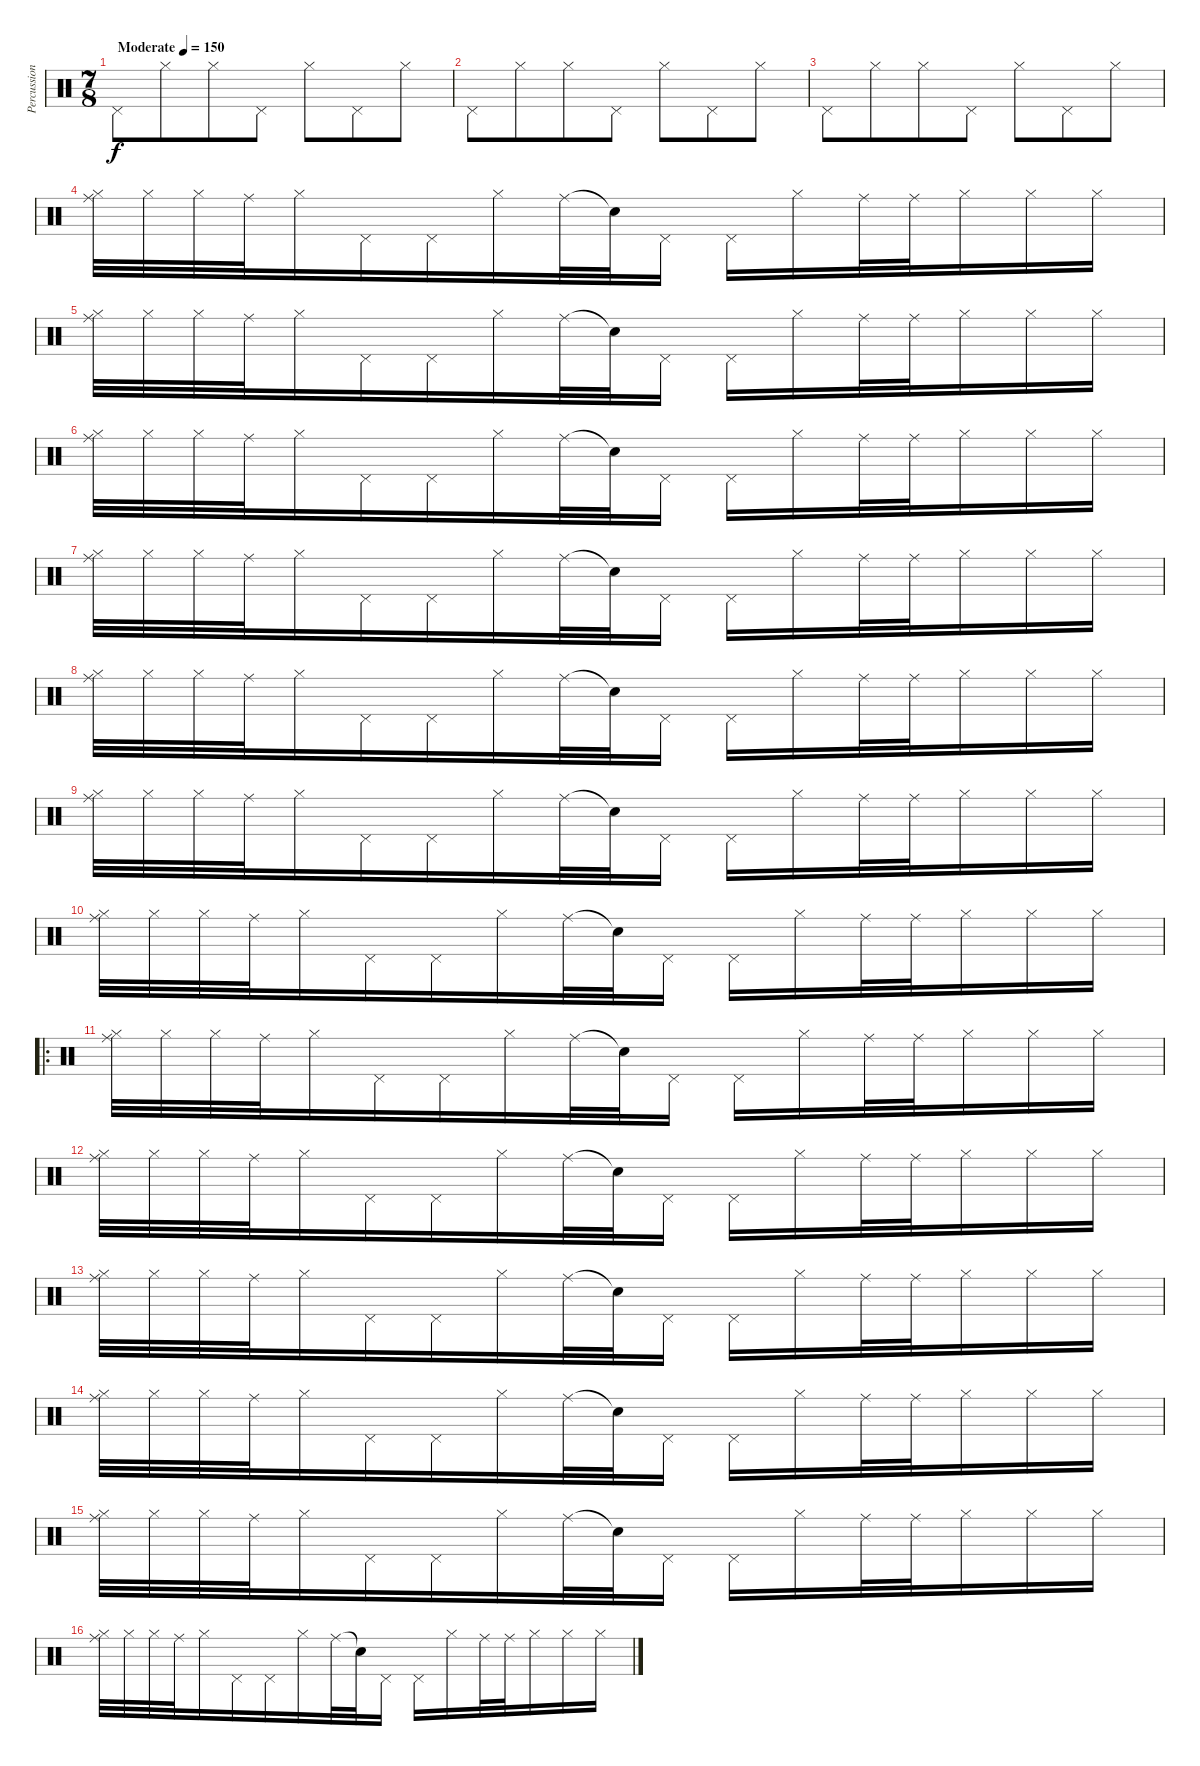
\track ("Percussion" "Percussion") {instrument percussion}
\staff {score}
\articulation defaults
\ts (7 8)
\tempo (150 "Moderate")
\clef neutral
\ks c "Pedal Hi-Hat (hit)".8{dy f} "Hi-Hat (closed)".8 "Hi-Hat (closed)".8 "Pedal Hi-Hat (hit)".8 "Hi-Hat (closed)".8 "Pedal Hi-Hat (hit)".8 "Hi-Hat (closed)".8
|
"Pedal Hi-Hat (hit)".8 "Hi-Hat (closed)".8 "Hi-Hat (closed)".8 "Pedal Hi-Hat (hit)".8 "Hi-Hat (closed)".8 "Pedal Hi-Hat (hit)".8 "Hi-Hat (closed)".8 |
"Pedal Hi-Hat (hit)".8 "Hi-Hat (closed)".8 "Hi-Hat (closed)".8 "Pedal Hi-Hat (hit)".8 "Hi-Hat (closed)".8 "Pedal Hi-Hat (hit)".8 "Hi-Hat (closed)".8 |
("Hi-Hat (closed)" "Ride (middle)").32 "Hi-Hat (closed)".32 "Hi-Hat (closed)".32 "Ride (middle)".32 "Hi-Hat (closed)".16 "Pedal Hi-Hat (hit)".16 "Pedal Hi-Hat (hit)".16 "Hi-Hat (closed)".16 "Ride (middle)".32 "Snare (hit)"{t}.32 "Pedal Hi-Hat (hit)".16 "Pedal Hi-Hat (hit)".16 "Hi-Hat (closed)".16 "Ride (middle)".32 "Ride (middle)".32 "Hi-Hat (closed)".16 "Hi-Hat (closed)".16 "Hi-Hat (closed)".16 |
("Hi-Hat (closed)" "Ride (middle)").32 "Hi-Hat (closed)".32 "Hi-Hat (closed)".32 "Ride (middle)".32 "Hi-Hat (closed)".16 "Pedal Hi-Hat (hit)".16 "Pedal Hi-Hat (hit)".16 "Hi-Hat (closed)".16 "Ride (middle)".32 "Snare (hit)"{t}.32 "Pedal Hi-Hat (hit)".16 "Pedal Hi-Hat (hit)".16 "Hi-Hat (closed)".16 "Ride (middle)".32 "Ride (middle)".32 "Hi-Hat (closed)".16 "Hi-Hat (closed)".16 "Hi-Hat (closed)".16 |
("Hi-Hat (closed)" "Ride (middle)").32 "Hi-Hat (closed)".32 "Hi-Hat (closed)".32 "Ride (middle)".32 "Hi-Hat (closed)".16 "Pedal Hi-Hat (hit)".16 "Pedal Hi-Hat (hit)".16 "Hi-Hat (closed)".16 "Ride (middle)".32 "Snare (hit)"{t}.32 "Pedal Hi-Hat (hit)".16 "Pedal Hi-Hat (hit)".16 "Hi-Hat (closed)".16 "Ride (middle)".32 "Ride (middle)".32 "Hi-Hat (closed)".16 "Hi-Hat (closed)".16 "Hi-Hat (closed)".16 |
("Hi-Hat (closed)" "Ride (middle)").32 "Hi-Hat (closed)".32 "Hi-Hat (closed)".32 "Ride (middle)".32 "Hi-Hat (closed)".16 "Pedal Hi-Hat (hit)".16 "Pedal Hi-Hat (hit)".16 "Hi-Hat (closed)".16 "Ride (middle)".32 "Snare (hit)"{t}.32 "Pedal Hi-Hat (hit)".16 "Pedal Hi-Hat (hit)".16 "Hi-Hat (closed)".16 "Ride (middle)".32 "Ride (middle)".32 "Hi-Hat (closed)".16 "Hi-Hat (closed)".16 "Hi-Hat (closed)".16 |
("Hi-Hat (closed)" "Ride (middle)").32 "Hi-Hat (closed)".32 "Hi-Hat (closed)".32 "Ride (middle)".32 "Hi-Hat (closed)".16 "Pedal Hi-Hat (hit)".16 "Pedal Hi-Hat (hit)".16 "Hi-Hat (closed)".16 "Ride (middle)".32 "Snare (hit)"{t}.32 "Pedal Hi-Hat (hit)".16 "Pedal Hi-Hat (hit)".16 "Hi-Hat (closed)".16 "Ride (middle)".32 "Ride (middle)".32 "Hi-Hat (closed)".16 "Hi-Hat (closed)".16 "Hi-Hat (closed)".16 |
("Hi-Hat (closed)" "Ride (middle)").32 "Hi-Hat (closed)".32 "Hi-Hat (closed)".32 "Ride (middle)".32 "Hi-Hat (closed)".16 "Pedal Hi-Hat (hit)".16 "Pedal Hi-Hat (hit)".16 "Hi-Hat (closed)".16 "Ride (middle)".32 "Snare (hit)"{t}.32 "Pedal Hi-Hat (hit)".16 "Pedal Hi-Hat (hit)".16 "Hi-Hat (closed)".16 "Ride (middle)".32 "Ride (middle)".32 "Hi-Hat (closed)".16 "Hi-Hat (closed)".16 "Hi-Hat (closed)".16 |
("Hi-Hat (closed)" "Ride (middle)").32 "Hi-Hat (closed)".32 "Hi-Hat (closed)".32 "Ride (middle)".32 "Hi-Hat (closed)".16 "Pedal Hi-Hat (hit)".16 "Pedal Hi-Hat (hit)".16 "Hi-Hat (closed)".16 "Ride (middle)".32 "Snare (hit)"{t}.32 "Pedal Hi-Hat (hit)".16 "Pedal Hi-Hat (hit)".16 "Hi-Hat (closed)".16 "Ride (middle)".32 "Ride (middle)".32 "Hi-Hat (closed)".16 "Hi-Hat (closed)".16 "Hi-Hat (closed)".16 |
\ro
("Hi-Hat (closed)" "Ride (middle)").32 "Hi-Hat (closed)".32 "Hi-Hat (closed)".32 "Ride (middle)".32 "Hi-Hat (closed)".16 "Pedal Hi-Hat (hit)".16 "Pedal Hi-Hat (hit)".16 "Hi-Hat (closed)".16 "Ride (middle)".32 "Snare (hit)"{t}.32 "Pedal Hi-Hat (hit)".16 "Pedal Hi-Hat (hit)".16 "Hi-Hat (closed)".16 "Ride (middle)".32 "Ride (middle)".32 "Hi-Hat (closed)".16 "Hi-Hat (closed)".16 "Hi-Hat (closed)".16 |
("Hi-Hat (closed)" "Ride (middle)").32 "Hi-Hat (closed)".32 "Hi-Hat (closed)".32 "Ride (middle)".32 "Hi-Hat (closed)".16 "Pedal Hi-Hat (hit)".16 "Pedal Hi-Hat (hit)".16 "Hi-Hat (closed)".16 "Ride (middle)".32 "Snare (hit)"{t}.32 "Pedal Hi-Hat (hit)".16 "Pedal Hi-Hat (hit)".16 "Hi-Hat (closed)".16 "Ride (middle)".32 "Ride (middle)".32 "Hi-Hat (closed)".16 "Hi-Hat (closed)".16 "Hi-Hat (closed)".16 |
("Hi-Hat (closed)" "Ride (middle)").32 "Hi-Hat (closed)".32 "Hi-Hat (closed)".32 "Ride (middle)".32 "Hi-Hat (closed)".16 "Pedal Hi-Hat (hit)".16 "Pedal Hi-Hat (hit)".16 "Hi-Hat (closed)".16 "Ride (middle)".32 "Snare (hit)"{t}.32 "Pedal Hi-Hat (hit)".16 "Pedal Hi-Hat (hit)".16 "Hi-Hat (closed)".16 "Ride (middle)".32 "Ride (middle)".32 "Hi-Hat (closed)".16 "Hi-Hat (closed)".16 "Hi-Hat (closed)".16 |
("Hi-Hat (closed)" "Ride (middle)").32 "Hi-Hat (closed)".32 "Hi-Hat (closed)".32 "Ride (middle)".32 "Hi-Hat (closed)".16 "Pedal Hi-Hat (hit)".16 "Pedal Hi-Hat (hit)".16 "Hi-Hat (closed)".16 "Ride (middle)".32 "Snare (hit)"{t}.32 "Pedal Hi-Hat (hit)".16 "Pedal Hi-Hat (hit)".16 "Hi-Hat (closed)".16 "Ride (middle)".32 "Ride (middle)".32 "Hi-Hat (closed)".16 "Hi-Hat (closed)".16 "Hi-Hat (closed)".16 |
("Hi-Hat (closed)" "Ride (middle)").32 "Hi-Hat (closed)".32 "Hi-Hat (closed)".32 "Ride (middle)".32 "Hi-Hat (closed)".16 "Pedal Hi-Hat (hit)".16 "Pedal Hi-Hat (hit)".16 "Hi-Hat (closed)".16 "Ride (middle)".32 "Snare (hit)"{t}.32 "Pedal Hi-Hat (hit)".16 "Pedal Hi-Hat (hit)".16 "Hi-Hat (closed)".16 "Ride (middle)".32 "Ride (middle)".32 "Hi-Hat (closed)".16 "Hi-Hat (closed)".16 "Hi-Hat (closed)".16 |
("Hi-Hat (closed)" "Ride (middle)").32 "Hi-Hat (closed)".32 "Hi-Hat (closed)".32 "Ride (middle)".32 "Hi-Hat (closed)".16 "Pedal Hi-Hat (hit)".16 "Pedal Hi-Hat (hit)".16 "Hi-Hat (closed)".16 "Ride (middle)".32 "Snare (hit)"{t}.32 "Pedal Hi-Hat (hit)".16 "Pedal Hi-Hat (hit)".16 "Hi-Hat (closed)".16 "Ride (middle)".32 "Ride (middle)".32 "Hi-Hat (closed)".16 "Hi-Hat (closed)".16 "Hi-Hat (closed)".16
